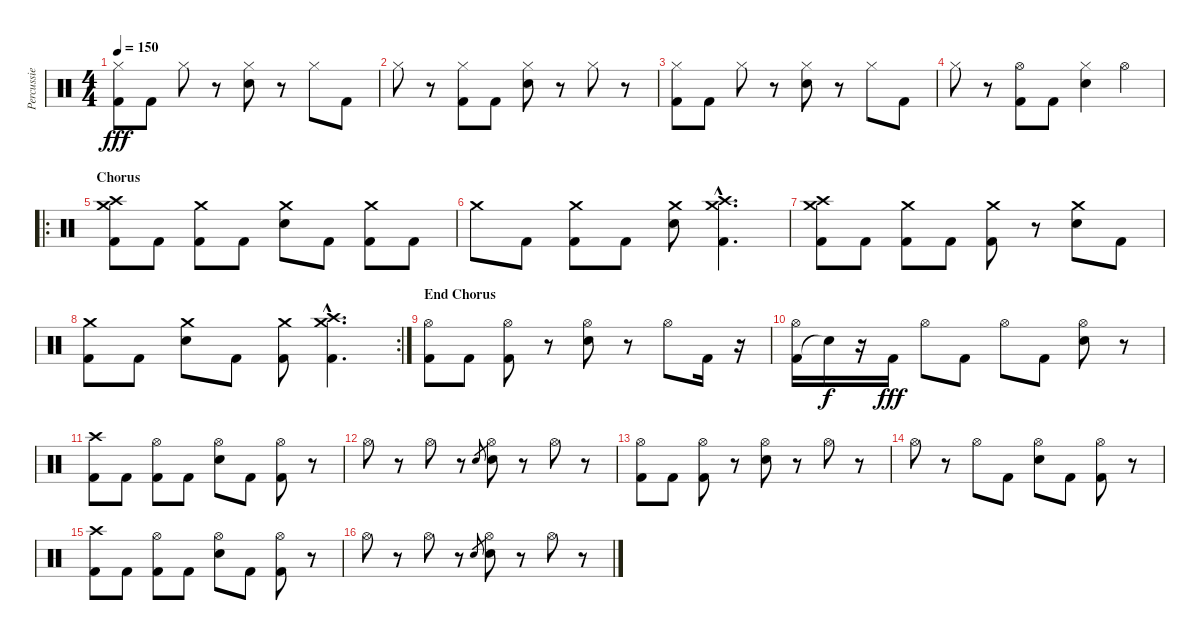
\track ("Percussie" "Percussie") {instrument percussion}
\staff {score}
\articulation defaults
\ts (4 4)
\tempo 150
\clef neutral
\ks c
("Kick (hit) 2" "Hi-Hat (closed)").8{dy fff} "Kick (hit) 2".8 "Hi-Hat (closed)".8 r.8 ("Electric Snare (hit)" "Hi-Hat (closed)").8 r.8 "Hi-Hat (closed)".8 "Kick (hit) 2".8 |
"Hi-Hat (closed)".8 r.8 ("Kick (hit) 2" "Hi-Hat (closed)").8 "Kick (hit) 2".8 ("Electric Snare (hit)" "Hi-Hat (closed)").8 r.8 "Hi-Hat (closed)".8 r.8 |
("Kick (hit) 2" "Hi-Hat (closed)").8 "Kick (hit) 2".8 "Hi-Hat (closed)".8 r.8 ("Electric Snare (hit)" "Hi-Hat (closed)").8 r.8 "Hi-Hat (closed)".8 "Kick (hit) 2".8 |
"Hi-Hat (closed)".8 r.8 ("Kick (hit) 2" "Hi-Hat (open)").8 "Kick (hit) 2".8 ("Electric Snare (hit)" "Hi-Hat (closed)").4 "Hi-Hat (open)".4 |
\ro
\section ("" "Chorus")
("Kick (hit) 2" "Crash high (hit)" "Crash medium (hit)").8 "Kick (hit) 2".8 ("Kick (hit) 2" "Crash medium (hit)").8 "Kick (hit) 2".8 ("Electric Snare (hit)" "Crash medium (hit)").8 "Kick (hit) 2".8 ("Kick (hit) 2" "Crash medium (hit)").8 "Kick (hit) 2".8 |
"Crash medium (hit)".8 "Kick (hit) 2".8 ("Kick (hit) 2" "Crash medium (hit)").8 "Kick (hit) 2".8 ("Electric Snare (hit)" "Crash medium (hit)").8 ("Kick (hit) 2"{hac} "Crash high (hit)"{hac} "Crash medium (hit)"{hac}).4{d} |
("Kick (hit) 2" "Crash high (hit)" "Crash medium (hit)").8 "Kick (hit) 2".8 ("Kick (hit) 2" "Crash medium (hit)").8 "Kick (hit) 2".8 ("Kick (hit) 2" "Crash medium (hit)").8 r.8 ("Electric Snare (hit)" "Crash medium (hit)").8 "Kick (hit) 2".8 |
\rc 2
("Kick (hit) 2" "Crash medium (hit)").8 "Kick (hit) 2".8 ("Electric Snare (hit)" "Crash medium (hit)").8 "Kick (hit) 2".8 ("Kick (hit) 2" "Crash medium (hit)").8 ("Kick (hit) 2"{hac} "Crash high (hit)"{hac} "Crash medium (hit)"{hac}).4{d} |
\section ("" "End Chorus")
("Kick (hit) 2" "Hi-Hat (open)").8 "Kick (hit) 2".8 ("Kick (hit) 2" "Hi-Hat (open)").8 r.8 ("Electric Snare (hit)" "Hi-Hat (open)").8 r.8 "Hi-Hat (open)".8 "Kick (hit) 2".16 r.16 |
("Kick (hit) 2" "Hi-Hat (open)").16 "Snare (hit)"{t}.16{dy f} r.16 "Kick (hit) 2".16{dy fff} "Hi-Hat (open)".8 "Kick (hit) 2".8 "Hi-Hat (open)".8 "Kick (hit) 2".8 ("Electric Snare (hit)" "Hi-Hat (open)").8 r.8 |
("Kick (hit) 2" "Crash high (hit)").8 "Kick (hit) 2".8 ("Kick (hit) 2" "Hi-Hat (open)").8 "Kick (hit) 2".8 ("Electric Snare (hit)" "Hi-Hat (open)").8 "Kick (hit) 2".8 ("Kick (hit) 2" "Hi-Hat (open)").8 r.8 |
"Hi-Hat (open)".8 r.8 "Hi-Hat (open)".8 r.8 "Electric Snare (hit)".8{gr} ("Electric Snare (hit)" "Hi-Hat (open)").8 r.8 "Hi-Hat (open)".8 r.8 |
("Kick (hit) 2" "Hi-Hat (open)").8 "Kick (hit) 2".8 ("Kick (hit) 2" "Hi-Hat (open)").8 r.8 ("Electric Snare (hit)" "Hi-Hat (open)").8 r.8 "Hi-Hat (open)".8 r.8 |
"Hi-Hat (open)".8 r.8 "Hi-Hat (open)".8 "Kick (hit) 2".8 ("Electric Snare (hit)" "Hi-Hat (open)").8 "Kick (hit) 2".8 ("Kick (hit) 2" "Hi-Hat (open)").8 r.8 |
("Kick (hit) 2" "Crash high (hit)").8 "Kick (hit) 2".8 ("Kick (hit) 2" "Hi-Hat (open)").8 "Kick (hit) 2".8 ("Electric Snare (hit)" "Hi-Hat (open)").8 "Kick (hit) 2".8 ("Kick (hit) 2" "Hi-Hat (open)").8 r.8 |
"Hi-Hat (open)".8 r.8 "Hi-Hat (open)".8 r.8 "Electric Snare (hit)".8{gr} ("Electric Snare (hit)" "Hi-Hat (open)").8 r.8 "Hi-Hat (open)".8 r.8
